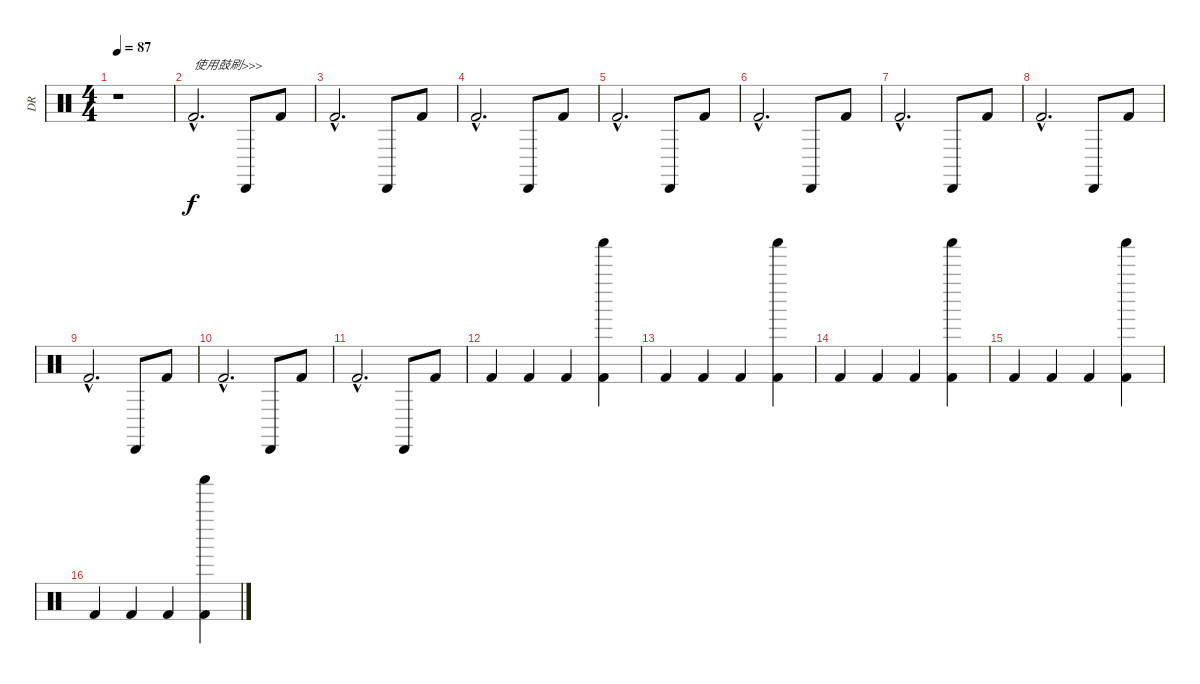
\track ("DR" "DR") {instrument percussion}
\staff {score}
\articulation defaults
\ts (4 4)
\tempo 87
\clef neutral
\ks c
r.1{dy f} |
"Kick (hit) 2"{hac}.2{d txt "使用鼓刷>>>"} "Cabasa (hit)".8 "Kick (hit) 2".8 |
"Kick (hit) 2"{hac}.2{d} "Cabasa (hit)".8 "Kick (hit) 2".8 |
"Kick (hit) 2"{hac}.2{d} "Cabasa (hit)".8 "Kick (hit) 2".8 |
"Kick (hit) 2"{hac}.2{d} "Cabasa (hit)".8 "Kick (hit) 2".8 |
"Kick (hit) 2"{hac}.2{d} "Cabasa (hit)".8 "Kick (hit) 2".8 |
"Kick (hit) 2"{hac}.2{d} "Cabasa (hit)".8 "Kick (hit) 2".8 |
"Kick (hit) 2"{hac}.2{d} "Cabasa (hit)".8 "Kick (hit) 2".8 |
"Kick (hit) 2"{hac}.2{d} "Cabasa (hit)".8 "Kick (hit) 2".8 |
"Kick (hit) 2"{hac}.2{d} "Cabasa (hit)".8 "Kick (hit) 2".8 |
"Kick (hit) 2"{hac}.2{d} "Cabasa (hit)".8 "Kick (hit) 2".8 |
"Kick (hit) 2".4 "Kick (hit) 2".4 "Kick (hit) 2".4 ("Shaker (hit)" "Kick (hit) 2").4 |
"Kick (hit) 2".4 "Kick (hit) 2".4 "Kick (hit) 2".4 ("Shaker (hit)" "Kick (hit) 2").4 |
"Kick (hit) 2".4 "Kick (hit) 2".4 "Kick (hit) 2".4 ("Shaker (hit)" "Kick (hit) 2").4 |
"Kick (hit) 2".4 "Kick (hit) 2".4 "Kick (hit) 2".4 ("Shaker (hit)" "Kick (hit) 2").4 |
"Kick (hit) 2".4 "Kick (hit) 2".4 "Kick (hit) 2".4 ("Shaker (hit)" "Kick (hit) 2").4
